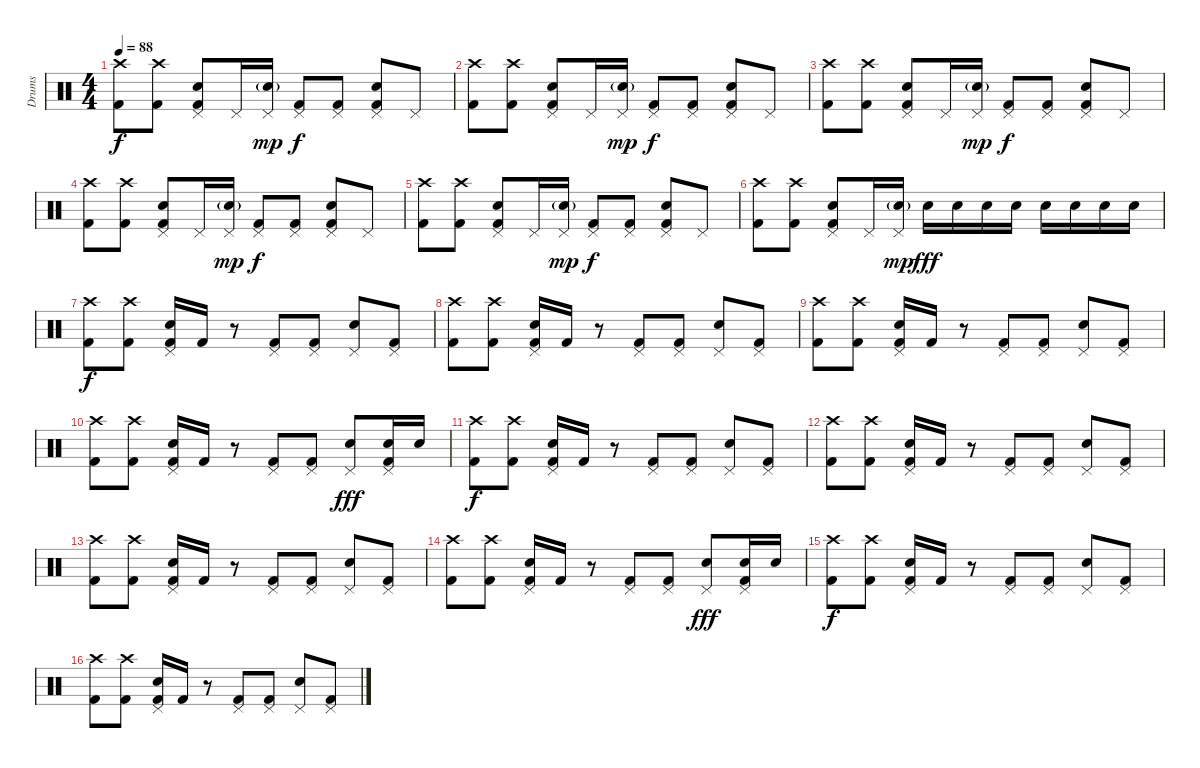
\track ("Drums" "Drums") {instrument percussion}
\staff {score}
\articulation defaults
\ts (4 4)
\tempo 88
\clef neutral
\ks c
("Crash high (hit)" "Kick (hit) 2").8{dy f} ("Crash high (hit)" "Kick (hit) 2").8 ("Pedal Hi-Hat (hit)" "Snare (hit) 2" "Kick (hit) 2").8 "Pedal Hi-Hat (hit)".16 ("Pedal Hi-Hat (hit)" "Snare (hit) 2"{g}).16{dy mp} ("Pedal Hi-Hat (hit)" "Kick (hit) 2").8{dy f} ("Pedal Hi-Hat (hit)" "Kick (hit) 2").8 ("Pedal Hi-Hat (hit)" "Snare (hit) 2" "Kick (hit) 2").8 "Pedal Hi-Hat (hit)".8 |
("Crash high (hit)" "Kick (hit) 2").8 ("Crash high (hit)" "Kick (hit) 2").8 ("Pedal Hi-Hat (hit)" "Snare (hit) 2" "Kick (hit) 2").8 "Pedal Hi-Hat (hit)".16 ("Pedal Hi-Hat (hit)" "Snare (hit) 2"{g}).16{dy mp} ("Pedal Hi-Hat (hit)" "Kick (hit) 2").8{dy f} ("Pedal Hi-Hat (hit)" "Kick (hit) 2").8 ("Pedal Hi-Hat (hit)" "Snare (hit) 2" "Kick (hit) 2").8 "Pedal Hi-Hat (hit)".8 |
("Crash high (hit)" "Kick (hit) 2").8 ("Crash high (hit)" "Kick (hit) 2").8 ("Pedal Hi-Hat (hit)" "Snare (hit) 2" "Kick (hit) 2").8 "Pedal Hi-Hat (hit)".16 ("Pedal Hi-Hat (hit)" "Snare (hit) 2"{g}).16{dy mp} ("Pedal Hi-Hat (hit)" "Kick (hit) 2").8{dy f} ("Pedal Hi-Hat (hit)" "Kick (hit) 2").8 ("Pedal Hi-Hat (hit)" "Snare (hit) 2" "Kick (hit) 2").8 "Pedal Hi-Hat (hit)".8 |
("Crash high (hit)" "Kick (hit) 2").8 ("Crash high (hit)" "Kick (hit) 2").8 ("Pedal Hi-Hat (hit)" "Snare (hit) 2" "Kick (hit) 2").8 "Pedal Hi-Hat (hit)".16 ("Pedal Hi-Hat (hit)" "Snare (hit) 2"{g}).16{dy mp} ("Pedal Hi-Hat (hit)" "Kick (hit) 2").8{dy f} ("Pedal Hi-Hat (hit)" "Kick (hit) 2").8 ("Pedal Hi-Hat (hit)" "Snare (hit) 2" "Kick (hit) 2").8 "Pedal Hi-Hat (hit)".8 |
("Crash high (hit)" "Kick (hit) 2").8 ("Crash high (hit)" "Kick (hit) 2").8 ("Pedal Hi-Hat (hit)" "Snare (hit) 2" "Kick (hit) 2").8 "Pedal Hi-Hat (hit)".16 ("Pedal Hi-Hat (hit)" "Snare (hit) 2"{g}).16{dy mp} ("Pedal Hi-Hat (hit)" "Kick (hit) 2").8{dy f} ("Pedal Hi-Hat (hit)" "Kick (hit) 2").8 ("Pedal Hi-Hat (hit)" "Snare (hit) 2" "Kick (hit) 2").8 "Pedal Hi-Hat (hit)".8 |
("Crash high (hit)" "Kick (hit) 2").8 ("Crash high (hit)" "Kick (hit) 2").8 ("Pedal Hi-Hat (hit)" "Snare (hit) 2" "Kick (hit) 2").8 "Pedal Hi-Hat (hit)".16 ("Pedal Hi-Hat (hit)" "Snare (hit) 2"{g}).16{dy mp} "Snare (hit) 2".16{dy fff} "Snare (hit) 2".16 "Snare (hit) 2".16 "Snare (hit) 2".16 "Snare (hit) 2".16 "Snare (hit) 2".16 "Snare (hit) 2".16 "Snare (hit) 2".16 |
("Crash high (hit)" "Kick (hit) 2").8{dy f} ("Crash high (hit)" "Kick (hit) 2").8 ("Pedal Hi-Hat (hit)" "Snare (hit) 2" "Kick (hit) 2").16 "Kick (hit) 2".16 r.8 ("Pedal Hi-Hat (hit)" "Kick (hit) 2").8 ("Pedal Hi-Hat (hit)" "Kick (hit) 2").8 ("Pedal Hi-Hat (hit)" "Snare (hit) 2").8 ("Pedal Hi-Hat (hit)" "Kick (hit) 2").8 |
("Crash high (hit)" "Kick (hit) 2").8 ("Crash high (hit)" "Kick (hit) 2").8 ("Pedal Hi-Hat (hit)" "Snare (hit) 2" "Kick (hit) 2").16 "Kick (hit) 2".16 r.8 ("Pedal Hi-Hat (hit)" "Kick (hit) 2").8 ("Pedal Hi-Hat (hit)" "Kick (hit) 2").8 ("Pedal Hi-Hat (hit)" "Snare (hit) 2").8 ("Pedal Hi-Hat (hit)" "Kick (hit) 2").8 |
("Crash high (hit)" "Kick (hit) 2").8 ("Crash high (hit)" "Kick (hit) 2").8 ("Pedal Hi-Hat (hit)" "Snare (hit) 2" "Kick (hit) 2").16 "Kick (hit) 2".16 r.8 ("Pedal Hi-Hat (hit)" "Kick (hit) 2").8 ("Pedal Hi-Hat (hit)" "Kick (hit) 2").8 ("Pedal Hi-Hat (hit)" "Snare (hit) 2").8 ("Pedal Hi-Hat (hit)" "Kick (hit) 2").8 |
("Crash high (hit)" "Kick (hit) 2").8 ("Crash high (hit)" "Kick (hit) 2").8 ("Pedal Hi-Hat (hit)" "Snare (hit) 2" "Kick (hit) 2").16 "Kick (hit) 2".16 r.8 ("Pedal Hi-Hat (hit)" "Kick (hit) 2").8 ("Pedal Hi-Hat (hit)" "Kick (hit) 2").8 ("Pedal Hi-Hat (hit)" "Snare (hit) 2").8{dy fff} ("Pedal Hi-Hat (hit)" "Snare (hit) 2" "Kick (hit) 2").16 "Snare (hit) 2".16 |
("Crash high (hit)" "Kick (hit) 2").8{dy f} ("Crash high (hit)" "Kick (hit) 2").8 ("Pedal Hi-Hat (hit)" "Snare (hit) 2" "Kick (hit) 2").16 "Kick (hit) 2".16 r.8 ("Pedal Hi-Hat (hit)" "Kick (hit) 2").8 ("Pedal Hi-Hat (hit)" "Kick (hit) 2").8 ("Pedal Hi-Hat (hit)" "Snare (hit) 2").8 ("Pedal Hi-Hat (hit)" "Kick (hit) 2").8 |
("Crash high (hit)" "Kick (hit) 2").8 ("Crash high (hit)" "Kick (hit) 2").8 ("Pedal Hi-Hat (hit)" "Snare (hit) 2" "Kick (hit) 2").16 "Kick (hit) 2".16 r.8 ("Pedal Hi-Hat (hit)" "Kick (hit) 2").8 ("Pedal Hi-Hat (hit)" "Kick (hit) 2").8 ("Pedal Hi-Hat (hit)" "Snare (hit) 2").8 ("Pedal Hi-Hat (hit)" "Kick (hit) 2").8 |
("Crash high (hit)" "Kick (hit) 2").8 ("Crash high (hit)" "Kick (hit) 2").8 ("Pedal Hi-Hat (hit)" "Snare (hit) 2" "Kick (hit) 2").16 "Kick (hit) 2".16 r.8 ("Pedal Hi-Hat (hit)" "Kick (hit) 2").8 ("Pedal Hi-Hat (hit)" "Kick (hit) 2").8 ("Pedal Hi-Hat (hit)" "Snare (hit) 2").8 ("Pedal Hi-Hat (hit)" "Kick (hit) 2").8 |
("Crash high (hit)" "Kick (hit) 2").8 ("Crash high (hit)" "Kick (hit) 2").8 ("Pedal Hi-Hat (hit)" "Snare (hit) 2" "Kick (hit) 2").16 "Kick (hit) 2".16 r.8 ("Pedal Hi-Hat (hit)" "Kick (hit) 2").8 ("Pedal Hi-Hat (hit)" "Kick (hit) 2").8 ("Pedal Hi-Hat (hit)" "Snare (hit) 2").8{dy fff} ("Pedal Hi-Hat (hit)" "Snare (hit) 2" "Kick (hit) 2").16 "Snare (hit) 2".16 |
("Crash high (hit)" "Kick (hit) 2").8{dy f} ("Crash high (hit)" "Kick (hit) 2").8 ("Pedal Hi-Hat (hit)" "Snare (hit) 2" "Kick (hit) 2").16 "Kick (hit) 2".16 r.8 ("Pedal Hi-Hat (hit)" "Kick (hit) 2").8 ("Pedal Hi-Hat (hit)" "Kick (hit) 2").8 ("Pedal Hi-Hat (hit)" "Snare (hit) 2").8 ("Pedal Hi-Hat (hit)" "Kick (hit) 2").8 |
("Crash high (hit)" "Kick (hit) 2").8 ("Crash high (hit)" "Kick (hit) 2").8 ("Pedal Hi-Hat (hit)" "Snare (hit) 2" "Kick (hit) 2").16 "Kick (hit) 2".16 r.8 ("Pedal Hi-Hat (hit)" "Kick (hit) 2").8 ("Pedal Hi-Hat (hit)" "Kick (hit) 2").8 ("Pedal Hi-Hat (hit)" "Snare (hit) 2").8 ("Pedal Hi-Hat (hit)" "Kick (hit) 2").8
